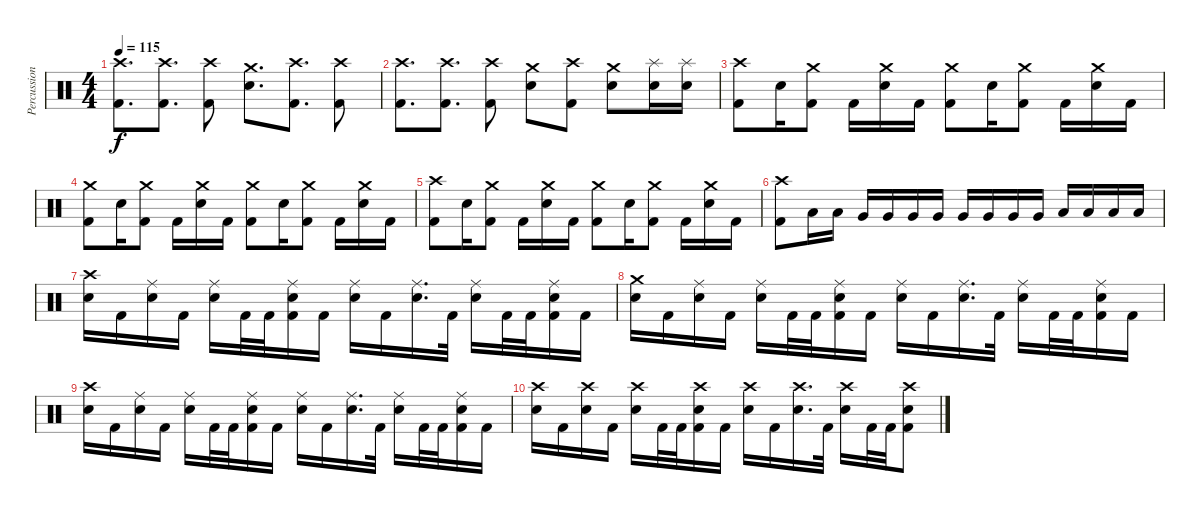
\track ("Percussion" "Percussion") {instrument percussion}
\staff {score}
\articulation defaults
\ts (4 4)
\tempo 115
\clef neutral
\ks c
("Crash high (hit)" "Kick (hit) 2").8{d dy f} ("Crash high (hit)" "Kick (hit) 2").8{d} ("Crash high (hit)" "Kick (hit) 2").8 ("Crash medium (hit)" "Snare (hit) 2").8{d} ("Crash high (hit)" "Kick (hit) 2").8{d} ("Crash high (hit)" "Kick (hit) 2").8 |
("Crash high (hit)" "Kick (hit) 2").8{d} ("Crash high (hit)" "Kick (hit) 2").8{d} ("Crash high (hit)" "Kick (hit) 2").8 ("Crash medium (hit)" "Snare (hit) 2").8 ("Crash high (hit)" "Kick (hit) 2").8 ("Crash medium (hit)" "Snare (hit) 2").8 ("Splash (hit)" "Snare (hit) 2").16 ("Splash (hit)" "Snare (hit) 2").16 |
("Crash high (hit)" "Kick (hit) 2").8 "Snare (hit) 2".16 ("Crash medium (hit)" "Kick (hit) 2").8 "Kick (hit) 2".16 ("Crash medium (hit)" "Snare (hit) 2").16 "Kick (hit) 2".16 ("Crash medium (hit)" "Kick (hit) 2").8 "Snare (hit) 2".16 ("Crash medium (hit)" "Kick (hit) 2").8 "Kick (hit) 2".16 ("Crash medium (hit)" "Snare (hit) 2").16 "Kick (hit) 2".16 |
("Crash medium (hit)" "Kick (hit) 2").8 "Snare (hit) 2".16 ("Crash medium (hit)" "Kick (hit) 2").8 "Kick (hit) 2".16 ("Crash medium (hit)" "Snare (hit) 2").16 "Kick (hit) 2".16 ("Crash medium (hit)" "Kick (hit) 2").8 "Snare (hit) 2".16 ("Crash medium (hit)" "Kick (hit) 2").8 "Kick (hit) 2".16 ("Crash medium (hit)" "Snare (hit) 2").16 "Kick (hit) 2".16 |
("Crash high (hit)" "Kick (hit) 2").8 "Snare (hit) 2".16 ("Crash medium (hit)" "Kick (hit) 2").8 "Kick (hit) 2".16 ("Crash medium (hit)" "Snare (hit) 2").16 "Kick (hit) 2".16 ("Crash medium (hit)" "Kick (hit) 2").8 "Snare (hit) 2".16 ("Crash medium (hit)" "Kick (hit) 2").8 "Kick (hit) 2".16 ("Crash medium (hit)" "Snare (hit) 2").16 "Kick (hit) 2".16 |
("Crash high (hit)" "Kick (hit) 2").8 "Low Tom (hit)".16 "Low Tom (hit)".16 "Very Low Tom (hit)".16 "Very Low Tom (hit)".16 "Very Low Tom (hit)".16 "Very Low Tom (hit)".16 "Very Low Tom (hit)".16 "Very Low Tom (hit)".16 "Very Low Tom (hit)".16 "Very Low Tom (hit)".16 "Low Floor Tom (hit)".16 "Low Floor Tom (hit)".16 "Low Floor Tom (hit)".16 "Low Floor Tom (hit)".16 |
("Crash high (hit)" "Snare (hit) 2").16 "Kick (hit) 2".16 ("Ride (middle)" "Snare (hit) 2").16 "Kick (hit) 2".16 ("Ride (middle)" "Snare (hit) 2").16 "Kick (hit) 2".32 "Kick (hit) 2".32 ("Ride (middle)" "Snare (hit) 2" "Kick (hit) 2").16 "Kick (hit) 2".16 ("Ride (middle)" "Snare (hit) 2").16 "Kick (hit) 2".16 ("Ride (middle)" "Snare (hit) 2").16{d} "Kick (hit) 2".32 ("Ride (middle)" "Snare (hit) 2").16 "Kick (hit) 2".32 "Kick (hit) 2".32 ("Ride (middle)" "Snare (hit) 2" "Kick (hit) 2").16 "Kick (hit) 2".16 |
("Crash medium (hit)" "Snare (hit) 2").16 "Kick (hit) 2".16 ("Ride (middle)" "Snare (hit) 2").16 "Kick (hit) 2".16 ("Ride (middle)" "Snare (hit) 2").16 "Kick (hit) 2".32 "Kick (hit) 2".32 ("Ride (middle)" "Snare (hit) 2" "Kick (hit) 2").16 "Kick (hit) 2".16 ("Ride (middle)" "Snare (hit) 2").16 "Kick (hit) 2".16 ("Ride (middle)" "Snare (hit) 2").16{d} "Kick (hit) 2".32 ("Ride (middle)" "Snare (hit) 2").16 "Kick (hit) 2".32 "Kick (hit) 2".32 ("Ride (middle)" "Snare (hit) 2" "Kick (hit) 2").16 "Kick (hit) 2".16 |
("Crash high (hit)" "Snare (hit) 2").16 "Kick (hit) 2".16 ("Ride (middle)" "Snare (hit) 2").16 "Kick (hit) 2".16 ("Ride (middle)" "Snare (hit) 2").16 "Kick (hit) 2".32 "Kick (hit) 2".32 ("Ride (middle)" "Snare (hit) 2" "Kick (hit) 2").16 "Kick (hit) 2".16 ("Ride (middle)" "Snare (hit) 2").16 "Kick (hit) 2".16 ("Ride (middle)" "Snare (hit) 2").16{d} "Kick (hit) 2".32 ("Ride (middle)" "Snare (hit) 2").16 "Kick (hit) 2".32 "Kick (hit) 2".32 ("Ride (middle)" "Snare (hit) 2" "Kick (hit) 2").16 "Kick (hit) 2".16 |
("Crash high (hit)" "Snare (hit) 2").16 "Kick (hit) 2".16 ("Crash high (hit)" "Snare (hit) 2").16 "Kick (hit) 2".16 ("Crash high (hit)" "Snare (hit) 2").16 "Kick (hit) 2".32 "Kick (hit) 2".32 ("Crash high (hit)" "Snare (hit) 2" "Kick (hit) 2").16 "Kick (hit) 2".16 ("Crash high (hit)" "Snare (hit) 2").16 "Kick (hit) 2".16 ("Crash high (hit)" "Snare (hit) 2").16{d} "Kick (hit) 2".32 ("Crash high (hit)" "Snare (hit) 2").16 "Kick (hit) 2".32 "Kick (hit) 2".32 ("Crash high (hit)" "Snare (hit) 2" "Kick (hit) 2").8
